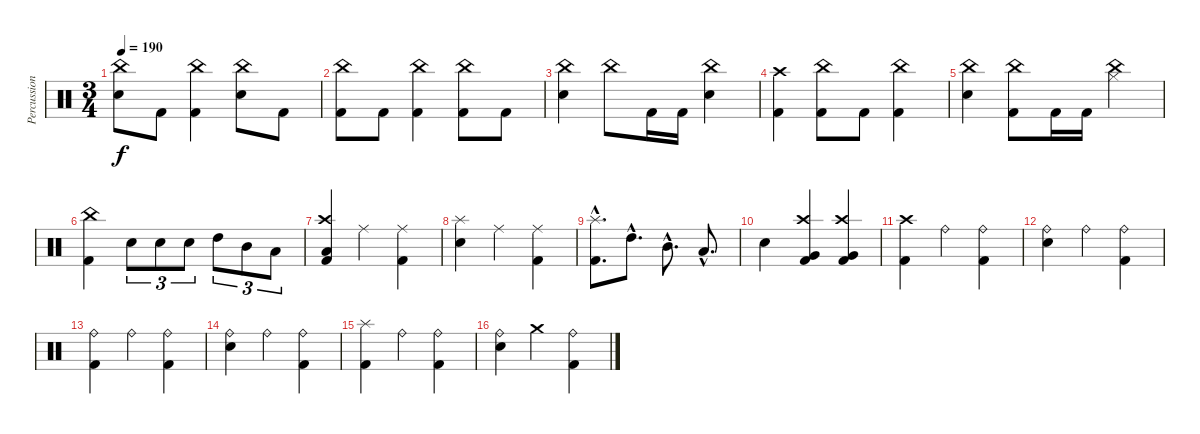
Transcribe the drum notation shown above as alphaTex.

\track ("Percussion" "Percussion") {instrument percussion}
\staff {score}
\articulation defaults
\ts (3 4)
\tempo 190
\clef neutral
\ks c
("China (hit)" "Electric Snare (hit)").8{dy f} "Kick (hit) 2".8 ("China (hit)" "Kick (hit) 2").4 ("China (hit)" "Electric Snare (hit)").8 "Kick (hit) 2".8 |
("China (hit)" "Kick (hit) 2").8 "Kick (hit) 2".8 ("China (hit)" "Kick (hit) 2").4 ("China (hit)" "Kick (hit) 2").8 "Kick (hit) 2".8 |
("China (hit)" "Electric Snare (hit)").4 "China (hit)".8 "Kick (hit) 2".16 "Kick (hit) 2".16 ("China (hit)" "Electric Snare (hit)").4 |
("Crash high (hit)" "Kick (hit) 2").4 ("China (hit)" "Kick (hit) 2").8 "Kick (hit) 2".8 ("China (hit)" "Kick (hit) 2").4 |
("China (hit)" "Electric Snare (hit)").4 ("China (hit)" "Kick (hit) 2").8 "Kick (hit) 2".16 "Kick (hit) 2".16 ("China (hit)" "Hi-Hat (closed)").4 |
("China (hit)" "Kick (hit) 2").4 "Electric Snare (hit)".8{tu (3 2)} "Electric Snare (hit)".8{tu (3 2)} "Electric Snare (hit)".8{tu (3 2)} "High Tom (hit)".8{tu (3 2)} "Mid Tom (hit)".8{tu (3 2)} "Low Tom (hit)".8{tu (3 2)} |
("Crash high (hit)" "Low Floor Tom (hit)" "Kick (hit) 2").4 "Ride (middle)".4 ("Ride (middle)" "Kick (hit) 2").4 |
("Splash (hit)" "Electric Snare (hit)").4 "Ride (middle)".4 ("Ride (middle)" "Kick (hit) 2").4 |
("Splash (hit)"{hac} "Kick (hit) 2"{hac}).8{d} "High Tom (hit)"{hac}.8{d} "Mid Tom (hit)"{hac}.8{d} "Low Tom (hit)"{hac}.8{d} |
"Electric Snare (hit)".4 ("Crash high (hit)" "Very Low Tom (hit)" "Kick (hit) 2").4 ("Crash high (hit)" "Very Low Tom (hit)" "Kick (hit) 2").4 |
("Crash high (hit)" "Kick (hit) 2").4 "Ride (bell)".4 ("Ride (bell)" "Kick (hit) 2").4 |
("Ride (bell)" "Electric Snare (hit)").4 "Ride (bell)".4 ("Ride (bell)" "Kick (hit) 2").4 |
("Ride (bell)" "Kick (hit) 2").4 "Ride (bell)".4 ("Ride (bell)" "Kick (hit) 2").4 |
("Ride (bell)" "Electric Snare (hit)").4 "Ride (bell)".4 ("Ride (bell)" "Kick (hit) 2").4 |
("Splash (hit)" "Kick (hit) 2").4 "Ride (bell)".4 ("Ride (bell)" "Kick (hit) 2").4 |
("Ride (bell)" "Electric Snare (hit)").4 "Crash medium (hit)".4 ("Ride (bell)" "Kick (hit) 2").4
